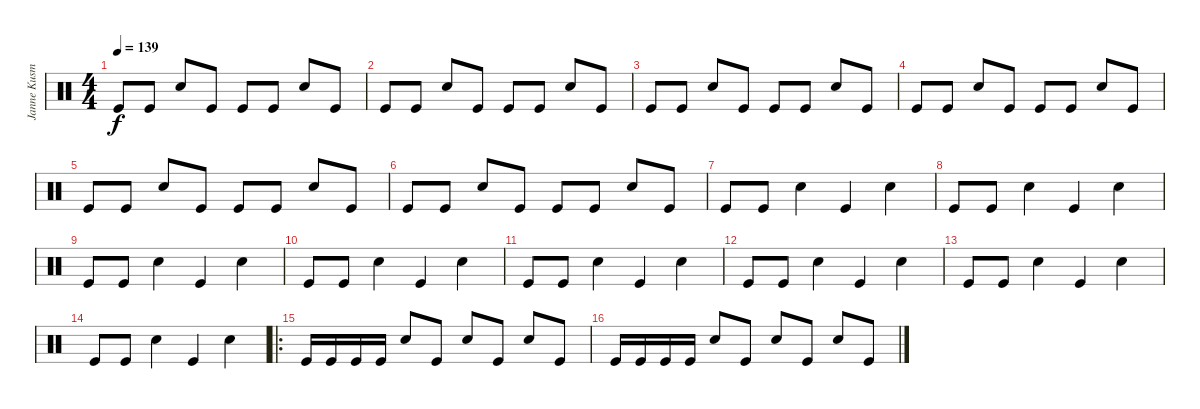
\track ("Janne Kusmin " "Janne Kusm") {instrument percussion}
\staff {score}
\articulation defaults
\ts (4 4)
\tempo 139
\clef neutral
\ks c "Kick (hit)".8{dy f} "Kick (hit)".8 "Snare (hit) 2".8 "Kick (hit)".8 "Kick (hit)".8 "Kick (hit)".8 "Snare (hit) 2".8 "Kick (hit)".8
|
"Kick (hit)".8 "Kick (hit)".8 "Snare (hit) 2".8 "Kick (hit)".8 "Kick (hit)".8 "Kick (hit)".8 "Snare (hit) 2".8 "Kick (hit)".8 |
"Kick (hit)".8 "Kick (hit)".8 "Snare (hit) 2".8 "Kick (hit)".8 "Kick (hit)".8 "Kick (hit)".8 "Snare (hit) 2".8 "Kick (hit)".8 |
"Kick (hit)".8 "Kick (hit)".8 "Snare (hit) 2".8 "Kick (hit)".8 "Kick (hit)".8 "Kick (hit)".8 "Snare (hit) 2".8 "Kick (hit)".8 |
"Kick (hit)".8 "Kick (hit)".8 "Snare (hit) 2".8 "Kick (hit)".8 "Kick (hit)".8 "Kick (hit)".8 "Snare (hit) 2".8 "Kick (hit)".8 |
"Kick (hit)".8 "Kick (hit)".8 "Snare (hit) 2".8 "Kick (hit)".8 "Kick (hit)".8 "Kick (hit)".8 "Snare (hit) 2".8 "Kick (hit)".8 |
"Kick (hit)".8 "Kick (hit)".8 "Snare (hit) 2".4 "Kick (hit)".4 "Snare (hit) 2".4 |
"Kick (hit)".8 "Kick (hit)".8 "Snare (hit) 2".4 "Kick (hit)".4 "Snare (hit) 2".4 |
"Kick (hit)".8 "Kick (hit)".8 "Snare (hit) 2".4 "Kick (hit)".4 "Snare (hit) 2".4 |
"Kick (hit)".8 "Kick (hit)".8 "Snare (hit) 2".4 "Kick (hit)".4 "Snare (hit) 2".4 |
"Kick (hit)".8 "Kick (hit)".8 "Snare (hit) 2".4 "Kick (hit)".4 "Snare (hit) 2".4 |
"Kick (hit)".8 "Kick (hit)".8 "Snare (hit) 2".4 "Kick (hit)".4 "Snare (hit) 2".4 |
"Kick (hit)".8 "Kick (hit)".8 "Snare (hit) 2".4 "Kick (hit)".4 "Snare (hit) 2".4 |
"Kick (hit)".8 "Kick (hit)".8 "Snare (hit) 2".4 "Kick (hit)".4 "Snare (hit) 2".4 |
\ro "Kick (hit)".16 "Kick (hit)".16 "Kick (hit)".16 "Kick (hit)".16 "Snare (hit) 2".8 "Kick (hit)".8 "Snare (hit) 2".8 "Kick (hit)".8 "Snare (hit) 2".8 "Kick (hit)".8
|
"Kick (hit)".16 "Kick (hit)".16 "Kick (hit)".16 "Kick (hit)".16 "Snare (hit) 2".8 "Kick (hit)".8 "Snare (hit) 2".8 "Kick (hit)".8 "Snare (hit) 2".8 "Kick (hit)".8
